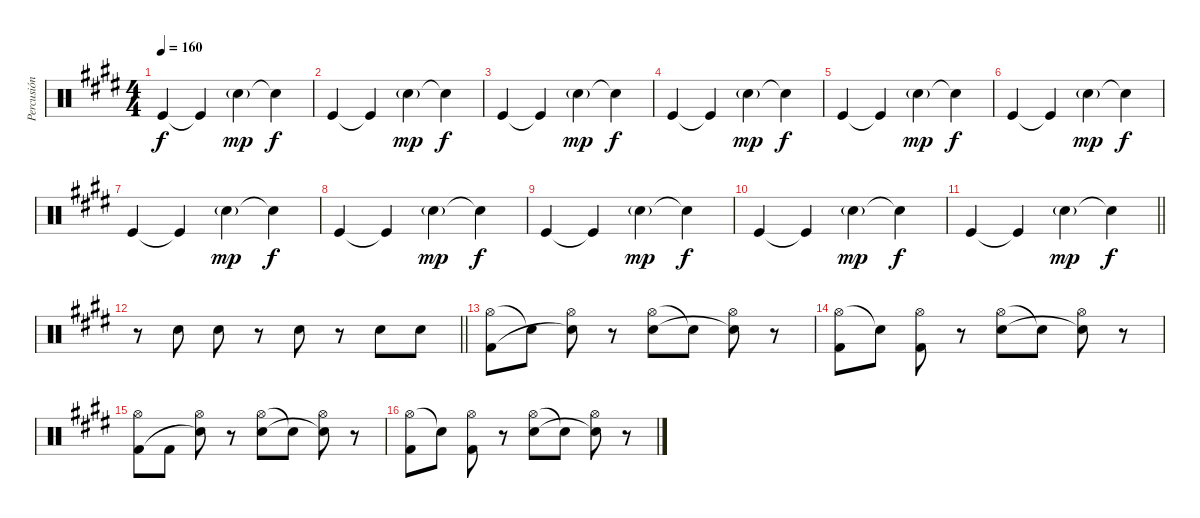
\track ("Percusión" "Percusión") {instrument percussion}
\staff {score}
\articulation defaults
\ts (4 4)
\tempo 160
\clef neutral
\ks e "Kick (hit)".4{dy f} "Kick (hit)"{t}.4 "Hand Clap (hit)"{g}.4{dy mp} "Snare (hit)"{t}.4{dy f}
|
"Kick (hit)".4 "Kick (hit)"{t}.4 "Hand Clap (hit)"{g}.4{dy mp} "Snare (hit)"{t}.4{dy f} |
"Kick (hit)".4 "Kick (hit)"{t}.4 "Hand Clap (hit)"{g}.4{dy mp} "Snare (hit)"{t}.4{dy f} |
"Kick (hit)".4 "Kick (hit)"{t}.4 "Hand Clap (hit)"{g}.4{dy mp} "Snare (hit)"{t}.4{dy f} |
"Kick (hit)".4 "Kick (hit)"{t}.4 "Hand Clap (hit)"{g}.4{dy mp} "Snare (hit)"{t}.4{dy f} |
"Kick (hit)".4 "Kick (hit)"{t}.4 "Hand Clap (hit)"{g}.4{dy mp} "Snare (hit)"{t}.4{dy f} |
"Kick (hit)".4 "Kick (hit)"{t}.4 "Hand Clap (hit)"{g}.4{dy mp} "Snare (hit)"{t}.4{dy f} |
"Kick (hit)".4 "Kick (hit)"{t}.4 "Hand Clap (hit)"{g}.4{dy mp} "Snare (hit)"{t}.4{dy f} |
"Kick (hit)".4 "Kick (hit)"{t}.4 "Hand Clap (hit)"{g}.4{dy mp} "Snare (hit)"{t}.4{dy f} |
"Kick (hit)".4 "Kick (hit)"{t}.4 "Hand Clap (hit)"{g}.4{dy mp} "Snare (hit)"{t}.4{dy f} |
\barLineRight lightlight "Kick (hit)".4 "Kick (hit)"{t}.4 "Hand Clap (hit)"{g}.4{dy mp} "Snare (hit)"{t}.4{dy f}
|
\section ("" "")
\barLineRight lightlight
r.8 "Snare (hit) 2".8 "Snare (hit) 2".8 r.8 "Snare (hit) 2".8 r.8 "Snare (hit) 2".8 "Snare (hit) 2".8 |
\section ("" "")
("Hi-Hat (open)" "Kick (hit) 2").8 "Snare (hit) 2"{t}.8 ("Hi-Hat (open)" "Snare (hit) 2"{t}).8 r.8 ("Hi-Hat (open)" "Electric Snare (hit)").8 "Snare (hit) 2"{t}.8 ("Hi-Hat (open)" "Snare (hit) 2"{t}).8 r.8 |
("Hi-Hat (open)" "Kick (hit) 2").8 "Snare (hit) 2"{t}.8 ("Hi-Hat (open)" "Kick (hit) 2").8 r.8 ("Hi-Hat (open)" "Electric Snare (hit)").8 "Snare (hit) 2"{t}.8 ("Hi-Hat (open)" "Snare (hit) 2"{t}).8 r.8 |
("Hi-Hat (open)" "Kick (hit) 2").8 "Kick (hit) 2".8 ("Hi-Hat (open)" "Snare (hit) 2"{t}).8 r.8 ("Hi-Hat (open)" "Electric Snare (hit)").8 "Snare (hit) 2"{t}.8 ("Hi-Hat (open)" "Snare (hit) 2"{t}).8 r.8 |
("Hi-Hat (open)" "Kick (hit) 2").8 "Snare (hit) 2"{t}.8 ("Hi-Hat (open)" "Kick (hit) 2").8 r.8 ("Hi-Hat (open)" "Electric Snare (hit)").8 "Snare (hit) 2"{t}.8 ("Hi-Hat (open)" "Snare (hit) 2"{t}).8 r.8
